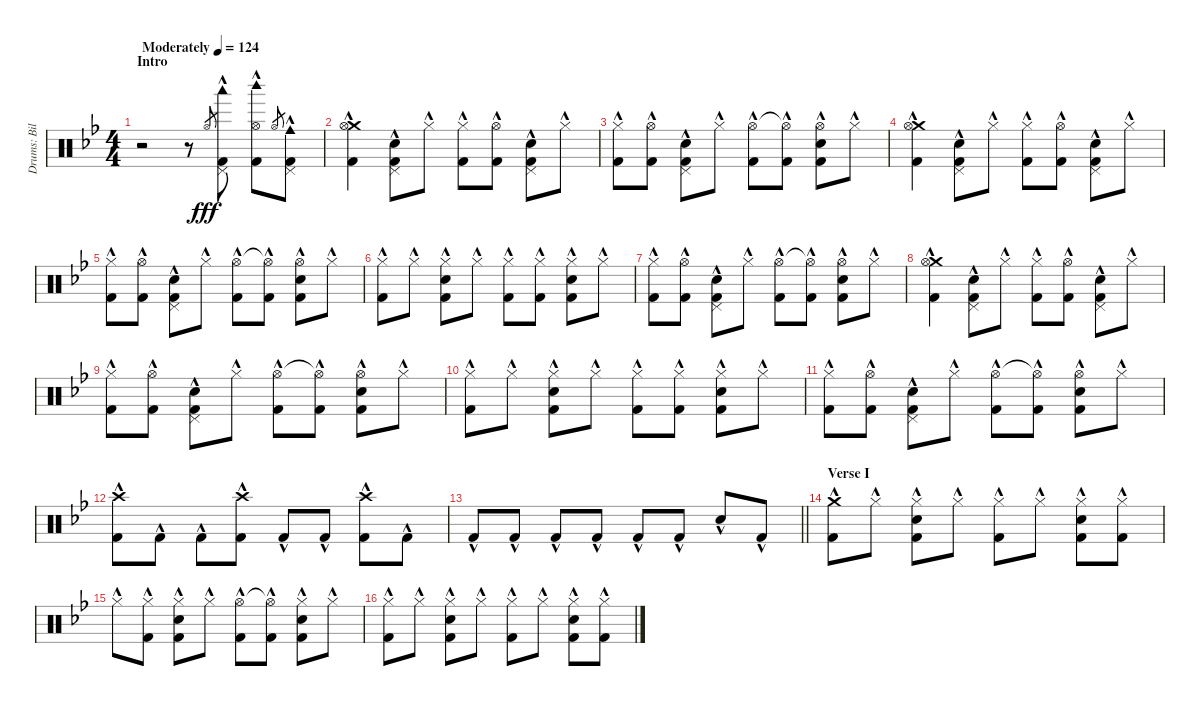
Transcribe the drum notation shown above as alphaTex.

\track ("Drums: Bill" "Drums: Bil") {instrument percussion}
\staff {score}
\articulation defaults
\ts (4 4)
\section ("" "Intro")
\tempo (124 "Moderately")
\clef neutral
\ks bb
r.2{dy fff} r.8 "Hi-Hat (open)".8{gr} ("Pedal Hi-Hat (hit)"{hac} "Kick (hit) 2"{hac} "Woodblock low (hit)").8 ("Hi-Hat (open)"{hac} "Kick (hit) 2"{hac} "Woodblock high (hit)").8 "Hi-Hat (open)".8{gr} ("Pedal Hi-Hat (hit)"{hac} "Kick (hit) 2"{hac} "Cowbell medium (hit)").8 |
("Crash medium (hit)"{hac} "Hi-Hat (open)" "Kick (hit) 2"{hac}).4 ("Pedal Hi-Hat (hit)"{hac} "Snare (hit) 2"{hac} "Kick (hit) 2"{hac}).8 "Hi-Hat (closed)"{hac}.8 ("Hi-Hat (closed)"{hac} "Kick (hit) 2"{hac}).8 ("Hi-Hat (open)"{hac} "Kick (hit) 2"{hac}).8 ("Pedal Hi-Hat (hit)"{hac} "Snare (hit) 2"{hac} "Kick (hit) 2"{hac}).8 "Hi-Hat (closed)"{hac}.8 |
("Hi-Hat (closed)"{hac} "Kick (hit) 2"{hac}).8 ("Hi-Hat (open)"{hac} "Kick (hit) 2"{hac}).8 ("Pedal Hi-Hat (hit)"{hac} "Snare (hit) 2"{hac} "Kick (hit) 2"{hac}).8 "Hi-Hat (closed)"{hac}.8 ("Hi-Hat (open)"{hac} "Kick (hit) 2"{hac}).8 ("Hi-Hat (open)"{t} "Kick (hit) 2"{hac}).8 ("Hi-Hat (open)"{hac} "Snare (hit) 2"{hac} "Kick (hit) 2"{hac}).8 "Hi-Hat (closed)"{hac}.8 |
("Crash medium (hit)"{hac} "Hi-Hat (open)" "Kick (hit) 2"{hac}).4 ("Pedal Hi-Hat (hit)"{hac} "Snare (hit) 2"{hac} "Kick (hit) 2"{hac}).8 "Hi-Hat (closed)"{hac}.8 ("Hi-Hat (closed)"{hac} "Kick (hit) 2"{hac}).8 ("Hi-Hat (open)"{hac} "Kick (hit) 2"{hac}).8 ("Pedal Hi-Hat (hit)"{hac} "Snare (hit) 2"{hac} "Kick (hit) 2"{hac}).8 "Hi-Hat (closed)"{hac}.8 |
("Hi-Hat (closed)"{hac} "Kick (hit) 2"{hac}).8 ("Hi-Hat (open)"{hac} "Kick (hit) 2"{hac}).8 ("Pedal Hi-Hat (hit)"{hac} "Snare (hit) 2"{hac} "Kick (hit) 2"{hac}).8 "Hi-Hat (closed)"{hac}.8 ("Hi-Hat (open)"{hac} "Kick (hit) 2"{hac}).8 ("Hi-Hat (open)"{t} "Kick (hit) 2"{hac}).8 ("Hi-Hat (open)"{hac} "Snare (hit) 2"{hac} "Kick (hit) 2"{hac}).8 "Hi-Hat (closed)"{hac}.8 |
("Hi-Hat (closed)"{hac} "Kick (hit) 2"{hac}).8 "Hi-Hat (closed)"{hac}.8 ("Hi-Hat (closed)"{hac} "Snare (hit) 2"{hac} "Kick (hit) 2"{hac}).8 "Hi-Hat (closed)"{hac}.8 ("Hi-Hat (closed)"{hac} "Kick (hit) 2"{hac}).8 ("Hi-Hat (closed)"{hac} "Kick (hit) 2"{hac}).8 ("Hi-Hat (closed)"{hac} "Snare (hit) 2"{hac} "Kick (hit) 2"{hac}).8 "Hi-Hat (closed)"{hac}.8 |
("Hi-Hat (closed)"{hac} "Kick (hit) 2"{hac}).8 ("Hi-Hat (open)"{hac} "Kick (hit) 2"{hac}).8 ("Pedal Hi-Hat (hit)"{hac} "Snare (hit) 2"{hac} "Kick (hit) 2"{hac}).8 "Hi-Hat (closed)"{hac}.8 ("Hi-Hat (open)"{hac} "Kick (hit) 2"{hac}).8 ("Hi-Hat (open)"{t} "Kick (hit) 2"{hac}).8 ("Hi-Hat (open)"{hac} "Snare (hit) 2"{hac} "Kick (hit) 2"{hac}).8 "Hi-Hat (closed)"{hac}.8 |
("Crash medium (hit)"{hac} "Hi-Hat (open)" "Kick (hit) 2"{hac}).4 ("Pedal Hi-Hat (hit)"{hac} "Snare (hit) 2"{hac} "Kick (hit) 2"{hac}).8 "Hi-Hat (closed)"{hac}.8 ("Hi-Hat (closed)"{hac} "Kick (hit) 2"{hac}).8 ("Hi-Hat (open)"{hac} "Kick (hit) 2"{hac}).8 ("Pedal Hi-Hat (hit)"{hac} "Snare (hit) 2"{hac} "Kick (hit) 2"{hac}).8 "Hi-Hat (closed)"{hac}.8 |
("Hi-Hat (closed)"{hac} "Kick (hit) 2"{hac}).8 ("Hi-Hat (open)"{hac} "Kick (hit) 2"{hac}).8 ("Pedal Hi-Hat (hit)"{hac} "Snare (hit) 2"{hac} "Kick (hit) 2"{hac}).8 "Hi-Hat (closed)"{hac}.8 ("Hi-Hat (open)"{hac} "Kick (hit) 2"{hac}).8 ("Hi-Hat (open)"{t} "Kick (hit) 2"{hac}).8 ("Hi-Hat (open)"{hac} "Snare (hit) 2"{hac} "Kick (hit) 2"{hac}).8 "Hi-Hat (closed)"{hac}.8 |
("Hi-Hat (closed)"{hac} "Kick (hit) 2"{hac}).8 "Hi-Hat (closed)"{hac}.8 ("Hi-Hat (closed)"{hac} "Snare (hit) 2"{hac} "Kick (hit) 2"{hac}).8 "Hi-Hat (closed)"{hac}.8 ("Hi-Hat (closed)"{hac} "Kick (hit) 2"{hac}).8 ("Hi-Hat (closed)"{hac} "Kick (hit) 2"{hac}).8 ("Hi-Hat (closed)"{hac} "Snare (hit) 2"{hac} "Kick (hit) 2"{hac}).8 "Hi-Hat (closed)"{hac}.8 |
("Hi-Hat (closed)"{hac} "Kick (hit) 2"{hac}).8 ("Hi-Hat (open)"{hac} "Kick (hit) 2"{hac}).8 ("Pedal Hi-Hat (hit)"{hac} "Snare (hit) 2"{hac} "Kick (hit) 2"{hac}).8 "Hi-Hat (closed)"{hac}.8 ("Hi-Hat (open)"{hac} "Kick (hit) 2"{hac}).8 ("Hi-Hat (open)"{t} "Kick (hit) 2"{hac}).8 ("Hi-Hat (open)"{hac} "Snare (hit) 2"{hac} "Kick (hit) 2"{hac}).8 "Hi-Hat (closed)"{hac}.8 |
("Crash high (hit)"{hac} "Kick (hit) 2"{hac}).8 "Kick (hit) 2"{hac}.8 "Kick (hit) 2"{hac}.8 ("Crash high (hit)"{hac} "Kick (hit) 2"{hac}).8 "Kick (hit) 2"{hac}.8 "Kick (hit) 2"{hac}.8 ("Crash high (hit)"{hac} "Kick (hit) 2"{hac}).8 "Kick (hit) 2"{hac}.8 |
\barLineRight lightlight "Kick (hit) 2"{hac}.8 "Kick (hit) 2"{hac}.8 "Kick (hit) 2"{hac}.8 "Kick (hit) 2"{hac}.8 "Kick (hit) 2"{hac}.8 "Kick (hit) 2"{hac}.8 "Snare (hit) 2"{hac}.8 "Kick (hit) 2"{hac}.8
|
\section ("" "Verse I")
("Crash medium (hit)"{hac} "Kick (hit) 2"{hac}).8 "Hi-Hat (closed)"{hac}.8 ("Hi-Hat (closed)"{hac} "Snare (hit) 2"{hac} "Kick (hit) 2"{hac}).8 "Hi-Hat (closed)"{hac}.8 ("Hi-Hat (closed)"{hac} "Kick (hit) 2"{hac}).8 "Hi-Hat (closed)"{hac}.8 ("Hi-Hat (closed)"{hac} "Snare (hit) 2"{hac} "Kick (hit) 2"{hac}).8 ("Hi-Hat (closed)"{hac} "Kick (hit) 2"{hac}).8 |
"Hi-Hat (closed)"{hac}.8 ("Hi-Hat (closed)"{hac} "Kick (hit) 2"{hac}).8 ("Hi-Hat (closed)"{hac} "Snare (hit) 2"{hac} "Kick (hit) 2"{hac}).8 "Hi-Hat (closed)"{hac}.8 ("Hi-Hat (open)"{hac} "Kick (hit) 2"{hac}).8 ("Hi-Hat (open)"{t} "Kick (hit) 2"{hac}).8 ("Hi-Hat (closed)"{hac} "Snare (hit) 2"{hac} "Kick (hit) 2"{hac}).8 "Hi-Hat (closed)"{hac}.8 |
("Hi-Hat (closed)"{hac} "Kick (hit) 2"{hac}).8 "Hi-Hat (closed)"{hac}.8 ("Hi-Hat (closed)"{hac} "Snare (hit) 2"{hac} "Kick (hit) 2"{hac}).8 "Hi-Hat (closed)"{hac}.8 ("Hi-Hat (closed)"{hac} "Kick (hit) 2"{hac}).8 "Hi-Hat (closed)"{hac}.8 ("Hi-Hat (closed)"{hac} "Snare (hit) 2"{hac} "Kick (hit) 2"{hac}).8 ("Hi-Hat (closed)"{hac} "Kick (hit) 2"{hac}).8
